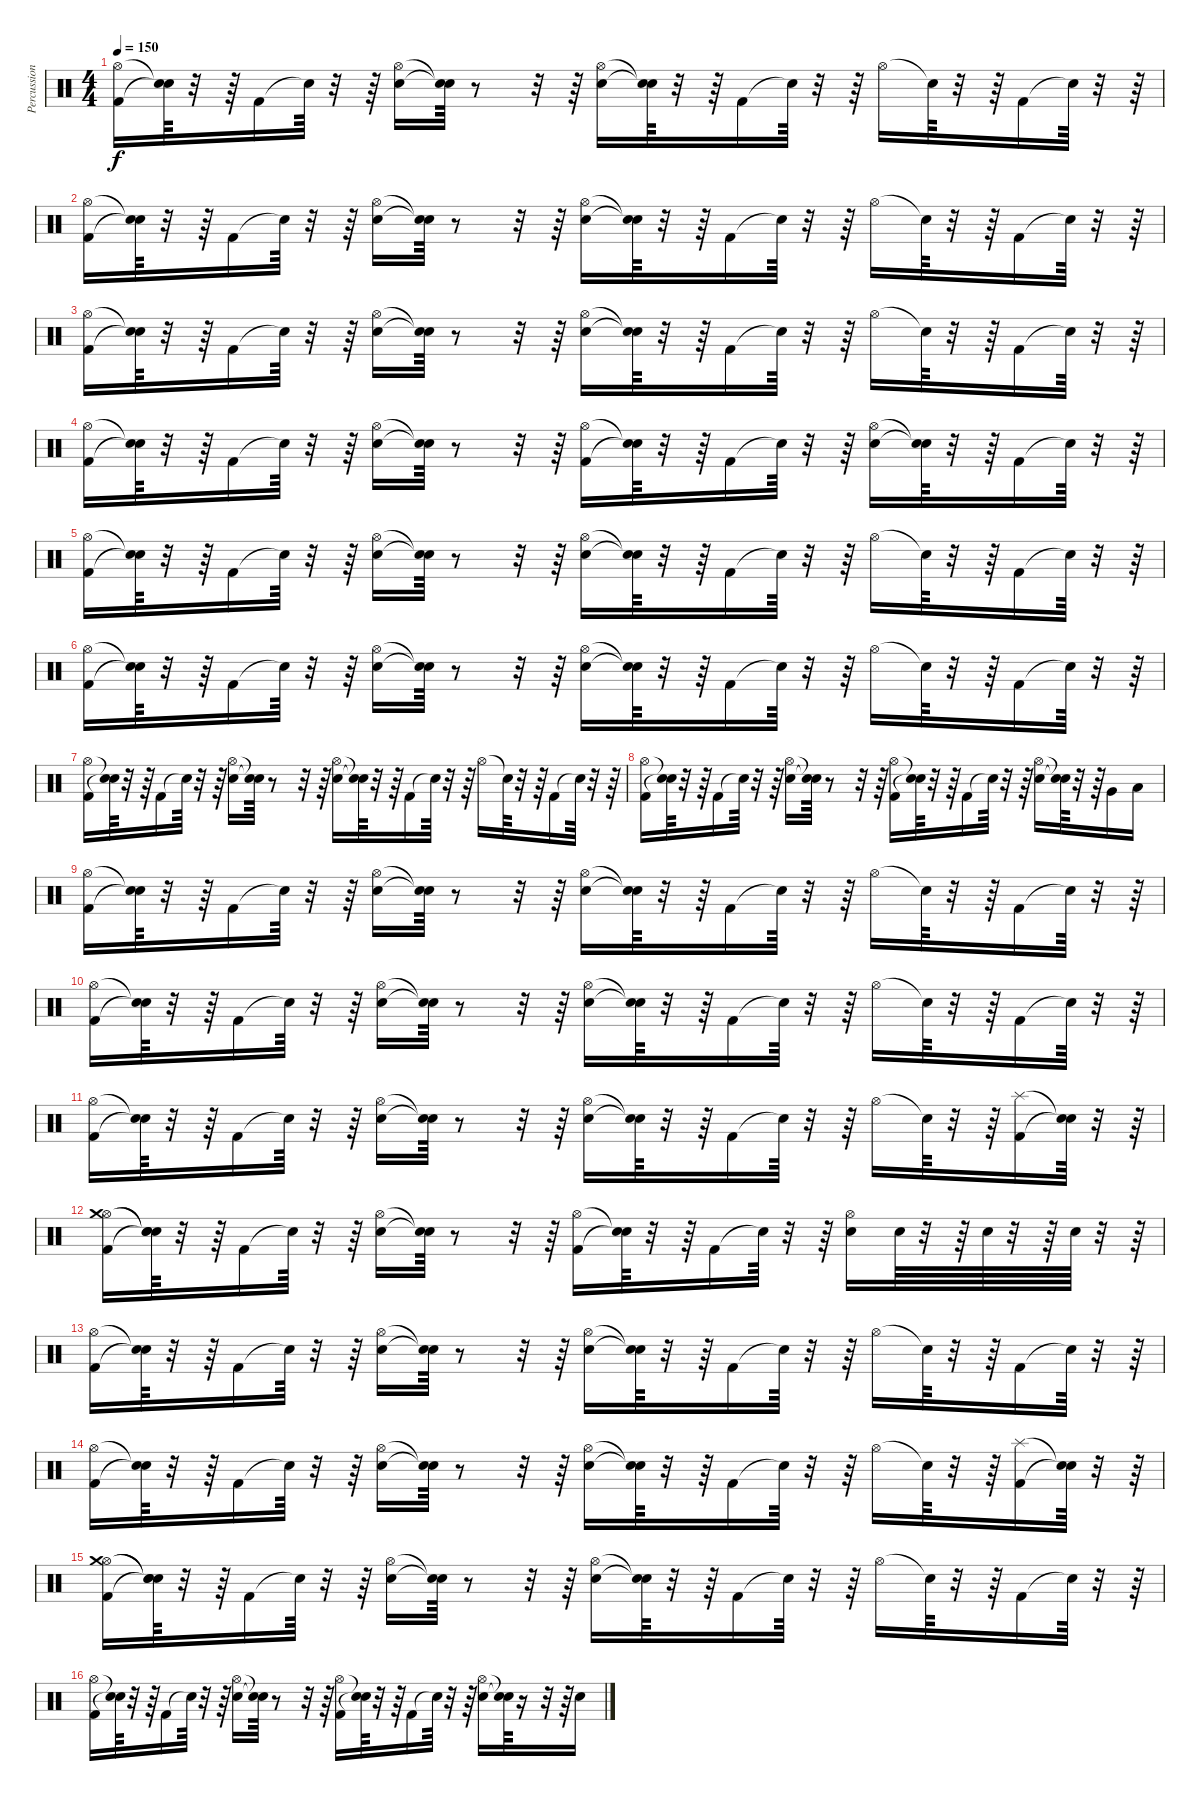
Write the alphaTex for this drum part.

\track ("Percussions" "Percussion") {instrument percussion}
\staff {score}
\articulation defaults
\ts (4 4)
\tempo 150
\clef neutral
\ks c
("Hi-Hat (open)" "Kick (hit) 2").16{dy f} ("Snare (hit)"{t} "Snare (hit)"{t}).64 r.32 r.64 "Kick (hit) 2".16 "Snare (hit)"{t}.64 r.32 r.64 ("Hi-Hat (open)" "Electric Snare (hit)").16 ("Snare (hit)"{t} "Snare (hit)"{t}).64 r.8 r.32 r.64 ("Hi-Hat (open)" "Electric Snare (hit)").16 ("Snare (hit)"{t} "Snare (hit)"{t}).64 r.32 r.64 "Kick (hit) 2".16 "Snare (hit)"{t}.64 r.32 r.64 "Hi-Hat (open)".16 "Snare (hit)"{t}.64 r.32 r.64 "Kick (hit) 2".16 "Snare (hit)"{t}.64 r.32 r.64 |
("Hi-Hat (open)" "Kick (hit) 2").16 ("Snare (hit)"{t} "Snare (hit)"{t}).64 r.32 r.64 "Kick (hit) 2".16 "Snare (hit)"{t}.64 r.32 r.64 ("Hi-Hat (open)" "Electric Snare (hit)").16 ("Snare (hit)"{t} "Snare (hit)"{t}).64 r.8 r.32 r.64 ("Hi-Hat (open)" "Electric Snare (hit)").16 ("Snare (hit)"{t} "Snare (hit)"{t}).64 r.32 r.64 "Kick (hit) 2".16 "Snare (hit)"{t}.64 r.32 r.64 "Hi-Hat (open)".16 "Snare (hit)"{t}.64 r.32 r.64 "Kick (hit) 2".16 "Snare (hit)"{t}.64 r.32 r.64 |
("Hi-Hat (open)" "Kick (hit) 2").16 ("Snare (hit)"{t} "Snare (hit)"{t}).64 r.32 r.64 "Kick (hit) 2".16 "Snare (hit)"{t}.64 r.32 r.64 ("Hi-Hat (open)" "Electric Snare (hit)").16 ("Snare (hit)"{t} "Snare (hit)"{t}).64 r.8 r.32 r.64 ("Hi-Hat (open)" "Electric Snare (hit)").16 ("Snare (hit)"{t} "Snare (hit)"{t}).64 r.32 r.64 "Kick (hit) 2".16 "Snare (hit)"{t}.64 r.32 r.64 "Hi-Hat (open)".16 "Snare (hit)"{t}.64 r.32 r.64 "Kick (hit) 2".16 "Snare (hit)"{t}.64 r.32 r.64 |
("Hi-Hat (open)" "Kick (hit) 2").16 ("Snare (hit)"{t} "Snare (hit)"{t}).64 r.32 r.64 "Kick (hit) 2".16 "Snare (hit)"{t}.64 r.32 r.64 ("Hi-Hat (open)" "Electric Snare (hit)").16 ("Snare (hit)"{t} "Snare (hit)"{t}).64 r.8 r.32 r.64 ("Hi-Hat (open)" "Kick (hit) 2").16 ("Snare (hit)"{t} "Snare (hit)"{t}).64 r.32 r.64 "Kick (hit) 2".16 "Snare (hit)"{t}.64 r.32 r.64 ("Hi-Hat (open)" "Electric Snare (hit)").16 ("Snare (hit)"{t} "Snare (hit)"{t}).64 r.32 r.64 "Kick (hit) 2".16 "Snare (hit)"{t}.64 r.32 r.64 |
("Hi-Hat (open)" "Kick (hit) 2").16 ("Snare (hit)"{t} "Snare (hit)"{t}).64 r.32 r.64 "Kick (hit) 2".16 "Snare (hit)"{t}.64 r.32 r.64 ("Hi-Hat (open)" "Electric Snare (hit)").16 ("Snare (hit)"{t} "Snare (hit)"{t}).64 r.8 r.32 r.64 ("Hi-Hat (open)" "Electric Snare (hit)").16 ("Snare (hit)"{t} "Snare (hit)"{t}).64 r.32 r.64 "Kick (hit) 2".16 "Snare (hit)"{t}.64 r.32 r.64 "Hi-Hat (open)".16 "Snare (hit)"{t}.64 r.32 r.64 "Kick (hit) 2".16 "Snare (hit)"{t}.64 r.32 r.64 |
("Hi-Hat (open)" "Kick (hit) 2").16 ("Snare (hit)"{t} "Snare (hit)"{t}).64 r.32 r.64 "Kick (hit) 2".16 "Snare (hit)"{t}.64 r.32 r.64 ("Hi-Hat (open)" "Electric Snare (hit)").16 ("Snare (hit)"{t} "Snare (hit)"{t}).64 r.8 r.32 r.64 ("Hi-Hat (open)" "Electric Snare (hit)").16 ("Snare (hit)"{t} "Snare (hit)"{t}).64 r.32 r.64 "Kick (hit) 2".16 "Snare (hit)"{t}.64 r.32 r.64 "Hi-Hat (open)".16 "Snare (hit)"{t}.64 r.32 r.64 "Kick (hit) 2".16 "Snare (hit)"{t}.64 r.32 r.64 |
("Hi-Hat (open)" "Kick (hit) 2").16 ("Snare (hit)"{t} "Snare (hit)"{t}).64 r.32 r.64 "Kick (hit) 2".16 "Snare (hit)"{t}.64 r.32 r.64 ("Hi-Hat (open)" "Electric Snare (hit)").16 ("Snare (hit)"{t} "Snare (hit)"{t}).64 r.8 r.32 r.64 ("Hi-Hat (open)" "Electric Snare (hit)").16 ("Snare (hit)"{t} "Snare (hit)"{t}).64 r.32 r.64 "Kick (hit) 2".16 "Snare (hit)"{t}.64 r.32 r.64 "Hi-Hat (open)".16 "Snare (hit)"{t}.64 r.32 r.64 "Kick (hit) 2".16 "Snare (hit)"{t}.64 r.32 r.64 |
("Hi-Hat (open)" "Kick (hit) 2").16 ("Snare (hit)"{t} "Snare (hit)"{t}).64 r.32 r.64 "Kick (hit) 2".16 "Snare (hit)"{t}.64 r.32 r.64 ("Hi-Hat (open)" "Electric Snare (hit)").16 ("Snare (hit)"{t} "Snare (hit)"{t}).64 r.8 r.32 r.64 ("Hi-Hat (open)" "Kick (hit) 2").16 ("Snare (hit)"{t} "Snare (hit)"{t}).64 r.32 r.64 "Kick (hit) 2".16 "Snare (hit)"{t}.64 r.32 r.64 ("Hi-Hat (open)" "Electric Snare (hit)").16 ("Snare (hit)"{t} "Snare (hit)"{t}).64 r.32 r.64 "Very Low Tom (hit)".16 "Low Floor Tom (hit)".16 |
("Hi-Hat (open)" "Kick (hit) 2").16 ("Snare (hit)"{t} "Snare (hit)"{t}).64 r.32 r.64 "Kick (hit) 2".16 "Snare (hit)"{t}.64 r.32 r.64 ("Hi-Hat (open)" "Electric Snare (hit)").16 ("Snare (hit)"{t} "Snare (hit)"{t}).64 r.8 r.32 r.64 ("Hi-Hat (open)" "Electric Snare (hit)").16 ("Snare (hit)"{t} "Snare (hit)"{t}).64 r.32 r.64 "Kick (hit) 2".16 "Snare (hit)"{t}.64 r.32 r.64 "Hi-Hat (open)".16 "Snare (hit)"{t}.64 r.32 r.64 "Kick (hit) 2".16 "Snare (hit)"{t}.64 r.32 r.64 |
("Hi-Hat (open)" "Kick (hit) 2").16 ("Snare (hit)"{t} "Snare (hit)"{t}).64 r.32 r.64 "Kick (hit) 2".16 "Snare (hit)"{t}.64 r.32 r.64 ("Hi-Hat (open)" "Electric Snare (hit)").16 ("Snare (hit)"{t} "Snare (hit)"{t}).64 r.8 r.32 r.64 ("Hi-Hat (open)" "Electric Snare (hit)").16 ("Snare (hit)"{t} "Snare (hit)"{t}).64 r.32 r.64 "Kick (hit) 2".16 "Snare (hit)"{t}.64 r.32 r.64 "Hi-Hat (open)".16 "Snare (hit)"{t}.64 r.32 r.64 "Kick (hit) 2".16 "Snare (hit)"{t}.64 r.32 r.64 |
("Hi-Hat (open)" "Kick (hit) 2").16 ("Snare (hit)"{t} "Snare (hit)"{t}).64 r.32 r.64 "Kick (hit) 2".16 "Snare (hit)"{t}.64 r.32 r.64 ("Hi-Hat (open)" "Electric Snare (hit)").16 ("Snare (hit)"{t} "Snare (hit)"{t}).64 r.8 r.32 r.64 ("Hi-Hat (open)" "Electric Snare (hit)").16 ("Snare (hit)"{t} "Snare (hit)"{t}).64 r.32 r.64 "Kick (hit) 2".16 "Snare (hit)"{t}.64 r.32 r.64 "Hi-Hat (open)".16 "Snare (hit)"{t}.64 r.32 r.64 ("Kick (hit) 2" "Splash (hit)").16 ("Snare (hit)"{t} "Snare (hit)"{t}).64 r.32 r.64 |
("Hi-Hat (open)" "Kick (hit) 2" "Crash medium (hit)").16 ("Snare (hit)"{t} "Snare (hit)"{t} "Snare (hit)"{t}).64 r.32 r.64 "Kick (hit) 2".16 "Snare (hit)"{t}.64 r.32 r.64 ("Hi-Hat (open)" "Electric Snare (hit)").16 ("Snare (hit)"{t} "Snare (hit)"{t}).64 r.8 r.32 r.64 ("Hi-Hat (open)" "Kick (hit) 2").16 ("Snare (hit)"{t} "Snare (hit)"{t}).64 r.32 r.64 "Kick (hit) 2".16 "Snare (hit)"{t}.64 r.32 r.64 ("Hi-Hat (open)" "Electric Snare (hit)").16 "Electric Snare (hit)".64 r.32 r.64 "Electric Snare (hit)".64 r.32 r.64 "Electric Snare (hit)".64 r.32 r.64 |
("Hi-Hat (open)" "Kick (hit) 2").16 ("Snare (hit)"{t} "Snare (hit)"{t}).64 r.32 r.64 "Kick (hit) 2".16 "Snare (hit)"{t}.64 r.32 r.64 ("Hi-Hat (open)" "Electric Snare (hit)").16 ("Snare (hit)"{t} "Snare (hit)"{t}).64 r.8 r.32 r.64 ("Hi-Hat (open)" "Electric Snare (hit)").16 ("Snare (hit)"{t} "Snare (hit)"{t}).64 r.32 r.64 "Kick (hit) 2".16 "Snare (hit)"{t}.64 r.32 r.64 "Hi-Hat (open)".16 "Snare (hit)"{t}.64 r.32 r.64 "Kick (hit) 2".16 "Snare (hit)"{t}.64 r.32 r.64 |
("Hi-Hat (open)" "Kick (hit) 2").16 ("Snare (hit)"{t} "Snare (hit)"{t}).64 r.32 r.64 "Kick (hit) 2".16 "Snare (hit)"{t}.64 r.32 r.64 ("Hi-Hat (open)" "Electric Snare (hit)").16 ("Snare (hit)"{t} "Snare (hit)"{t}).64 r.8 r.32 r.64 ("Hi-Hat (open)" "Electric Snare (hit)").16 ("Snare (hit)"{t} "Snare (hit)"{t}).64 r.32 r.64 "Kick (hit) 2".16 "Snare (hit)"{t}.64 r.32 r.64 "Hi-Hat (open)".16 "Snare (hit)"{t}.64 r.32 r.64 ("Kick (hit) 2" "Splash (hit)").16 ("Snare (hit)"{t} "Snare (hit)"{t}).64 r.32 r.64 |
("Hi-Hat (open)" "Kick (hit) 2" "Crash medium (hit)").16 ("Snare (hit)"{t} "Snare (hit)"{t} "Snare (hit)"{t}).64 r.32 r.64 "Kick (hit) 2".16 "Snare (hit)"{t}.64 r.32 r.64 ("Hi-Hat (open)" "Electric Snare (hit)").16 ("Snare (hit)"{t} "Snare (hit)"{t}).64 r.8 r.32 r.64 ("Hi-Hat (open)" "Electric Snare (hit)").16 ("Snare (hit)"{t} "Snare (hit)"{t}).64 r.32 r.64 "Kick (hit) 2".16 "Snare (hit)"{t}.64 r.32 r.64 "Hi-Hat (open)".16 "Snare (hit)"{t}.64 r.32 r.64 "Kick (hit) 2".16 "Snare (hit)"{t}.64 r.32 r.64 |
("Hi-Hat (open)" "Kick (hit) 2").16 ("Snare (hit)"{t} "Snare (hit)"{t}).64 r.32 r.64 "Kick (hit) 2".16 "Snare (hit)"{t}.64 r.32 r.64 ("Hi-Hat (open)" "Electric Snare (hit)").16 ("Snare (hit)"{t} "Snare (hit)"{t}).64 r.8 r.32 r.64 ("Hi-Hat (open)" "Kick (hit) 2").16 ("Snare (hit)"{t} "Snare (hit)"{t}).64 r.32 r.64 "Kick (hit) 2".16 "Snare (hit)"{t}.64 r.32 r.64 ("Hi-Hat (open)" "Electric Snare (hit)").16 ("Snare (hit)"{t} "Snare (hit)"{t}).64 r.16 r.32 r.64 "Electric Snare (hit)".16
